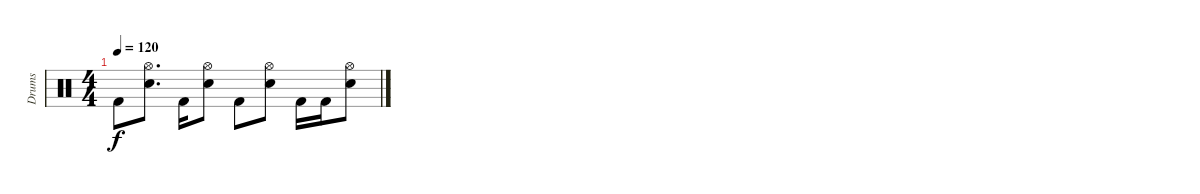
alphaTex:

\track ("Drums" "Drums") {instrument percussion}
\staff {score}
\articulation defaults
\ts (4 4)
\tempo 120
\clef neutral
\ks c "Kick (hit) 2".8{dy f}
("Hi-Hat (open)" "Snare (hit) 2").8{d} "Kick (hit) 2".16 ("Hi-Hat (open)" "Snare (hit) 2").8 "Kick (hit) 2".8 ("Hi-Hat (open)" "Snare (hit) 2").8 "Kick (hit) 2".16 "Kick (hit) 2".16 ("Hi-Hat (open)" "Snare (hit) 2").8
